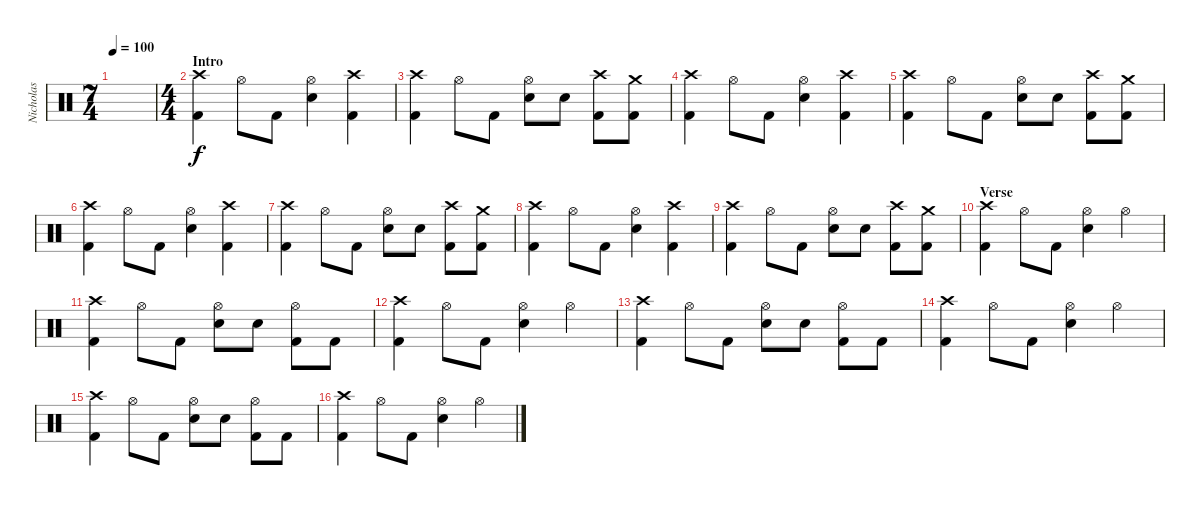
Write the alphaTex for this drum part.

\track ("Nicholas" "Nicholas") {instrument percussion}
\staff {score}
\articulation defaults
\ts (7 4)
\tempo 100
\clef neutral
\ks c
|
\ts (4 4)
\section ("" "Intro")
("Crash high (hit)" "Kick (hit) 2").4 "Hi-Hat (open)".8 "Kick (hit) 2".8 ("Hi-Hat (open)" "Snare (hit) 2").4 ("Crash high (hit)" "Kick (hit) 2").4 |
("Crash high (hit)" "Kick (hit) 2").4 "Hi-Hat (open)".8 "Kick (hit) 2".8 ("Hi-Hat (open)" "Snare (hit) 2").8 "Snare (hit) 2".8 ("Crash high (hit)" "Kick (hit) 2").8 ("Crash medium (hit)" "Kick (hit) 2").8 |
("Crash high (hit)" "Kick (hit) 2").4 "Hi-Hat (open)".8 "Kick (hit) 2".8 ("Hi-Hat (open)" "Snare (hit) 2").4 ("Crash high (hit)" "Kick (hit) 2").4 |
("Crash high (hit)" "Kick (hit) 2").4 "Hi-Hat (open)".8 "Kick (hit) 2".8 ("Hi-Hat (open)" "Snare (hit) 2").8 "Snare (hit) 2".8 ("Crash high (hit)" "Kick (hit) 2").8 ("Crash medium (hit)" "Kick (hit) 2").8 |
("Crash high (hit)" "Kick (hit) 2").4 "Hi-Hat (open)".8 "Kick (hit) 2".8 ("Hi-Hat (open)" "Snare (hit) 2").4 ("Crash high (hit)" "Kick (hit) 2").4 |
("Crash high (hit)" "Kick (hit) 2").4 "Hi-Hat (open)".8 "Kick (hit) 2".8 ("Hi-Hat (open)" "Snare (hit) 2").8 "Snare (hit) 2".8 ("Crash high (hit)" "Kick (hit) 2").8 ("Crash medium (hit)" "Kick (hit) 2").8 |
("Crash high (hit)" "Kick (hit) 2").4 "Hi-Hat (open)".8 "Kick (hit) 2".8 ("Hi-Hat (open)" "Snare (hit) 2").4 ("Crash high (hit)" "Kick (hit) 2").4 |
("Crash high (hit)" "Kick (hit) 2").4 "Hi-Hat (open)".8 "Kick (hit) 2".8 ("Hi-Hat (open)" "Snare (hit) 2").8 "Snare (hit) 2".8 ("Crash high (hit)" "Kick (hit) 2").8 ("Crash medium (hit)" "Kick (hit) 2").8 |
\section ("" "Verse")
("Crash high (hit)" "Kick (hit) 2").4 "Hi-Hat (open)".8 "Kick (hit) 2".8 ("Hi-Hat (open)" "Snare (hit) 2").4 "Hi-Hat (open)".4 |
("Crash high (hit)" "Kick (hit) 2").4 "Hi-Hat (open)".8 "Kick (hit) 2".8 ("Hi-Hat (open)" "Snare (hit) 2").8 "Snare (hit) 2".8 ("Hi-Hat (open)" "Kick (hit) 2").8 "Kick (hit) 2".8 |
("Crash high (hit)" "Kick (hit) 2").4 "Hi-Hat (open)".8 "Kick (hit) 2".8 ("Hi-Hat (open)" "Snare (hit) 2").4 "Hi-Hat (open)".4 |
("Crash high (hit)" "Kick (hit) 2").4 "Hi-Hat (open)".8 "Kick (hit) 2".8 ("Hi-Hat (open)" "Snare (hit) 2").8 "Snare (hit) 2".8 ("Hi-Hat (open)" "Kick (hit) 2").8 "Kick (hit) 2".8 |
("Crash high (hit)" "Kick (hit) 2").4 "Hi-Hat (open)".8 "Kick (hit) 2".8 ("Hi-Hat (open)" "Snare (hit) 2").4 "Hi-Hat (open)".4 |
("Crash high (hit)" "Kick (hit) 2").4 "Hi-Hat (open)".8 "Kick (hit) 2".8 ("Hi-Hat (open)" "Snare (hit) 2").8 "Snare (hit) 2".8 ("Hi-Hat (open)" "Kick (hit) 2").8 "Kick (hit) 2".8 |
("Crash high (hit)" "Kick (hit) 2").4 "Hi-Hat (open)".8 "Kick (hit) 2".8 ("Hi-Hat (open)" "Snare (hit) 2").4 "Hi-Hat (open)".4
